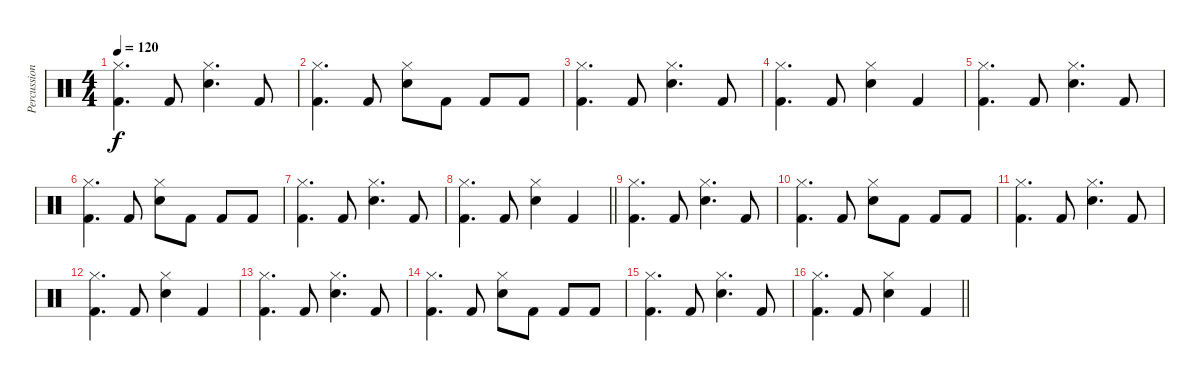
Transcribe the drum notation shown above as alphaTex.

\track ("Percussions" "Percussion") {instrument percussion}
\staff {score}
\articulation defaults
\ts (4 4)
\tempo 120
\clef neutral
\ks c
("Hi-Hat (closed)" "Kick (hit) 2").4{d dy f} "Kick (hit) 2".8 ("Hi-Hat (closed)" "Snare (hit) 2").4{d} "Kick (hit) 2".8 |
("Hi-Hat (closed)" "Kick (hit) 2").4{d} "Kick (hit) 2".8 ("Hi-Hat (closed)" "Snare (hit) 2").8 "Kick (hit) 2".8 "Kick (hit) 2".8 "Kick (hit) 2".8 |
("Hi-Hat (closed)" "Kick (hit) 2").4{d} "Kick (hit) 2".8 ("Hi-Hat (closed)" "Snare (hit) 2").4{d} "Kick (hit) 2".8 |
("Hi-Hat (closed)" "Kick (hit) 2").4{d} "Kick (hit) 2".8 ("Hi-Hat (closed)" "Snare (hit) 2").4 "Kick (hit) 2".4 |
("Hi-Hat (closed)" "Kick (hit) 2").4{d} "Kick (hit) 2".8 ("Hi-Hat (closed)" "Snare (hit) 2").4{d} "Kick (hit) 2".8 |
("Hi-Hat (closed)" "Kick (hit) 2").4{d} "Kick (hit) 2".8 ("Hi-Hat (closed)" "Snare (hit) 2").8 "Kick (hit) 2".8 "Kick (hit) 2".8 "Kick (hit) 2".8 |
("Hi-Hat (closed)" "Kick (hit) 2").4{d} "Kick (hit) 2".8 ("Hi-Hat (closed)" "Snare (hit) 2").4{d} "Kick (hit) 2".8 |
\barLineRight lightlight
("Hi-Hat (closed)" "Kick (hit) 2").4{d} "Kick (hit) 2".8 ("Hi-Hat (closed)" "Snare (hit) 2").4 "Kick (hit) 2".4 |
("Hi-Hat (closed)" "Kick (hit) 2").4{d} "Kick (hit) 2".8 ("Hi-Hat (closed)" "Snare (hit) 2").4{d} "Kick (hit) 2".8 |
("Hi-Hat (closed)" "Kick (hit) 2").4{d} "Kick (hit) 2".8 ("Hi-Hat (closed)" "Snare (hit) 2").8 "Kick (hit) 2".8 "Kick (hit) 2".8 "Kick (hit) 2".8 |
("Hi-Hat (closed)" "Kick (hit) 2").4{d} "Kick (hit) 2".8 ("Hi-Hat (closed)" "Snare (hit) 2").4{d} "Kick (hit) 2".8 |
("Hi-Hat (closed)" "Kick (hit) 2").4{d} "Kick (hit) 2".8 ("Hi-Hat (closed)" "Snare (hit) 2").4 "Kick (hit) 2".4 |
("Hi-Hat (closed)" "Kick (hit) 2").4{d} "Kick (hit) 2".8 ("Hi-Hat (closed)" "Snare (hit) 2").4{d} "Kick (hit) 2".8 |
("Hi-Hat (closed)" "Kick (hit) 2").4{d} "Kick (hit) 2".8 ("Hi-Hat (closed)" "Snare (hit) 2").8 "Kick (hit) 2".8 "Kick (hit) 2".8 "Kick (hit) 2".8 |
("Hi-Hat (closed)" "Kick (hit) 2").4{d} "Kick (hit) 2".8 ("Hi-Hat (closed)" "Snare (hit) 2").4{d} "Kick (hit) 2".8 |
\barLineRight lightlight
("Hi-Hat (closed)" "Kick (hit) 2").4{d} "Kick (hit) 2".8 ("Hi-Hat (closed)" "Snare (hit) 2").4 "Kick (hit) 2".4
